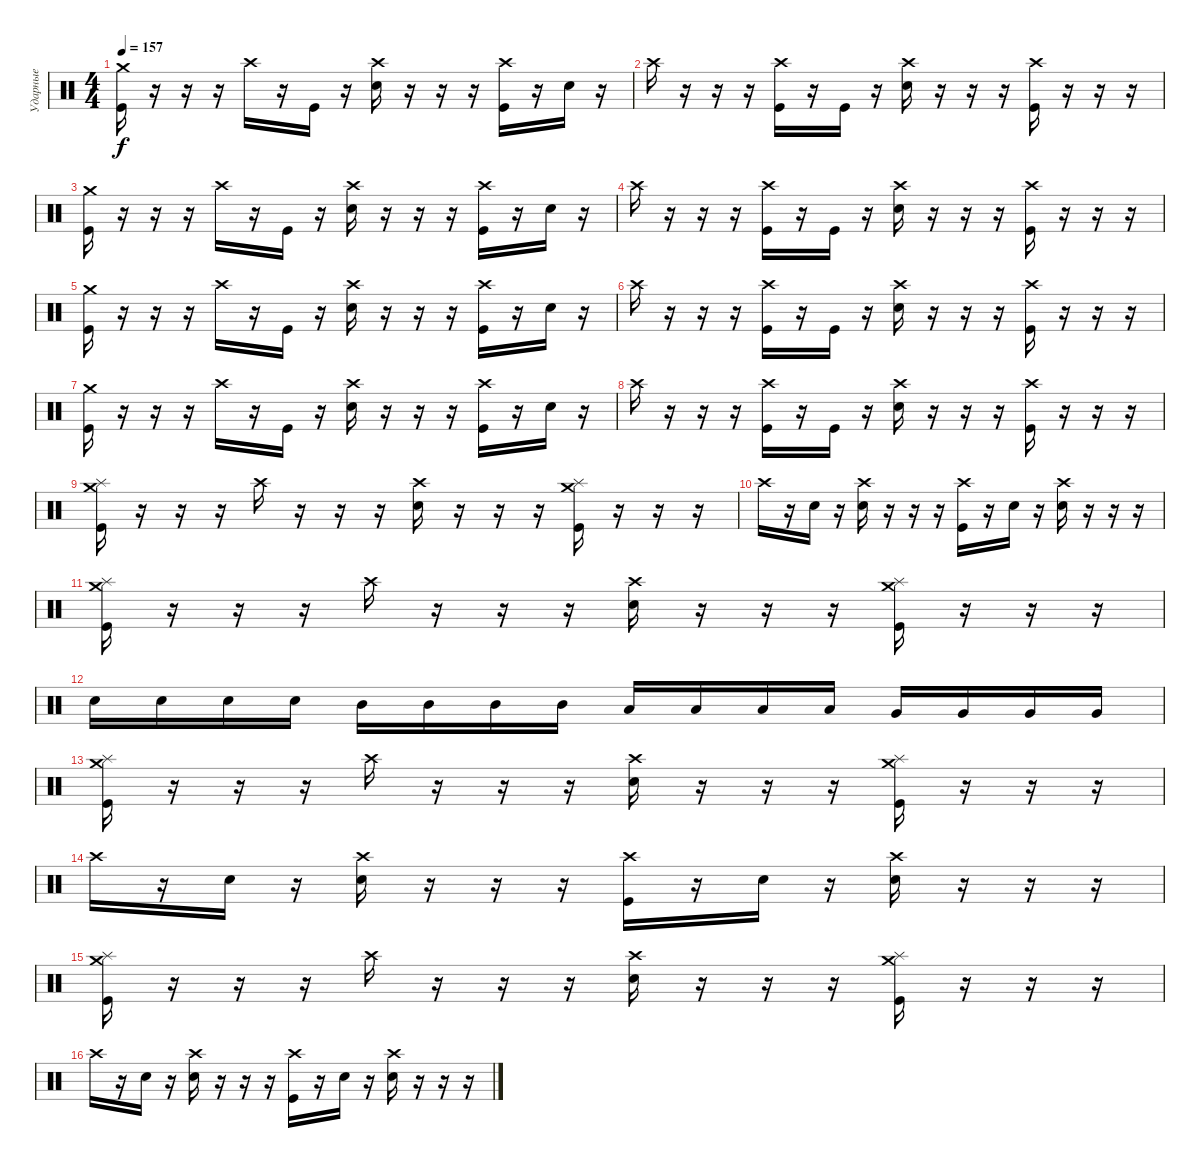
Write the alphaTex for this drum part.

\track ("Ударные" "Ударные") {instrument percussion}
\staff {score}
\articulation defaults
\ts (4 4)
\tempo 157
\clef neutral
\ks c
("Crash medium (hit)" "Kick (hit)").16{dy f} r.16 r.16 r.16 "Crash high (hit)".16 r.16 "Kick (hit)".16 r.16 ("Crash high (hit)" "Electric Snare (hit)").16 r.16 r.16 r.16 ("Crash high (hit)" "Kick (hit)").16 r.16 "Electric Snare (hit)".16 r.16 |
"Crash high (hit)".16 r.16 r.16 r.16 ("Crash high (hit)" "Kick (hit)").16 r.16 "Kick (hit)".16 r.16 ("Crash high (hit)" "Electric Snare (hit)").16 r.16 r.16 r.16 ("Crash high (hit)" "Kick (hit)").16 r.16 r.16 r.16 |
("Crash medium (hit)" "Kick (hit)").16 r.16 r.16 r.16 "Crash high (hit)".16 r.16 "Kick (hit)".16 r.16 ("Crash high (hit)" "Electric Snare (hit)").16 r.16 r.16 r.16 ("Crash high (hit)" "Kick (hit)").16 r.16 "Electric Snare (hit)".16 r.16 |
"Crash high (hit)".16 r.16 r.16 r.16 ("Crash high (hit)" "Kick (hit)").16 r.16 "Kick (hit)".16 r.16 ("Crash high (hit)" "Electric Snare (hit)").16 r.16 r.16 r.16 ("Crash high (hit)" "Kick (hit)").16 r.16 r.16 r.16 |
("Crash medium (hit)" "Kick (hit)").16 r.16 r.16 r.16 "Crash high (hit)".16 r.16 "Kick (hit)".16 r.16 ("Crash high (hit)" "Electric Snare (hit)").16 r.16 r.16 r.16 ("Crash high (hit)" "Kick (hit)").16 r.16 "Electric Snare (hit)".16 r.16 |
"Crash high (hit)".16 r.16 r.16 r.16 ("Crash high (hit)" "Kick (hit)").16 r.16 "Kick (hit)".16 r.16 ("Crash high (hit)" "Electric Snare (hit)").16 r.16 r.16 r.16 ("Crash high (hit)" "Kick (hit)").16 r.16 r.16 r.16 |
("Crash medium (hit)" "Kick (hit)").16 r.16 r.16 r.16 "Crash high (hit)".16 r.16 "Kick (hit)".16 r.16 ("Crash high (hit)" "Electric Snare (hit)").16 r.16 r.16 r.16 ("Crash high (hit)" "Kick (hit)").16 r.16 "Electric Snare (hit)".16 r.16 |
"Crash high (hit)".16 r.16 r.16 r.16 ("Crash high (hit)" "Kick (hit)").16 r.16 "Kick (hit)".16 r.16 ("Crash high (hit)" "Electric Snare (hit)").16 r.16 r.16 r.16 ("Crash high (hit)" "Kick (hit)").16 r.16 r.16 r.16 |
("Splash (hit)" "Crash medium (hit)" "Kick (hit)").16 r.16 r.16 r.16 "Crash high (hit)".16 r.16 r.16 r.16 ("Crash high (hit)" "Electric Snare (hit)").16 r.16 r.16 r.16 ("Splash (hit)" "Crash medium (hit)" "Kick (hit)").16 r.16 r.16 r.16 |
"Crash high (hit)".16 r.16 "Electric Snare (hit)".16 r.16 ("Crash high (hit)" "Electric Snare (hit)").16 r.16 r.16 r.16 ("Crash high (hit)" "Kick (hit)").16 r.16 "Electric Snare (hit)".16 r.16 ("Crash high (hit)" "Electric Snare (hit)").16 r.16 r.16 r.16 |
("Splash (hit)" "Crash medium (hit)" "Kick (hit)").16 r.16 r.16 r.16 "Crash high (hit)".16 r.16 r.16 r.16 ("Crash high (hit)" "Electric Snare (hit)").16 r.16 r.16 r.16 ("Splash (hit)" "Crash medium (hit)" "Kick (hit)").16 r.16 r.16 r.16 |
"Electric Snare (hit)".16 "Electric Snare (hit)".16 "Electric Snare (hit)".16 "Electric Snare (hit)".16 "Mid Tom (hit)".16 "Mid Tom (hit)".16 "Mid Tom (hit)".16 "Mid Tom (hit)".16 "Low Tom (hit)".16 "Low Tom (hit)".16 "Low Tom (hit)".16 "Low Tom (hit)".16 "Very Low Tom (hit)".16 "Very Low Tom (hit)".16 "Very Low Tom (hit)".16 "Very Low Tom (hit)".16 |
("Splash (hit)" "Crash medium (hit)" "Kick (hit)").16 r.16 r.16 r.16 "Crash high (hit)".16 r.16 r.16 r.16 ("Crash high (hit)" "Electric Snare (hit)").16 r.16 r.16 r.16 ("Splash (hit)" "Crash medium (hit)" "Kick (hit)").16 r.16 r.16 r.16 |
"Crash high (hit)".16 r.16 "Electric Snare (hit)".16 r.16 ("Crash high (hit)" "Electric Snare (hit)").16 r.16 r.16 r.16 ("Crash high (hit)" "Kick (hit)").16 r.16 "Electric Snare (hit)".16 r.16 ("Crash high (hit)" "Electric Snare (hit)").16 r.16 r.16 r.16 |
("Splash (hit)" "Crash medium (hit)" "Kick (hit)").16 r.16 r.16 r.16 "Crash high (hit)".16 r.16 r.16 r.16 ("Crash high (hit)" "Electric Snare (hit)").16 r.16 r.16 r.16 ("Splash (hit)" "Crash medium (hit)" "Kick (hit)").16 r.16 r.16 r.16 |
"Crash high (hit)".16 r.16 "Electric Snare (hit)".16 r.16 ("Crash high (hit)" "Electric Snare (hit)").16 r.16 r.16 r.16 ("Crash high (hit)" "Kick (hit)").16 r.16 "Electric Snare (hit)".16 r.16 ("Crash high (hit)" "Electric Snare (hit)").16 r.16 r.16 r.16
